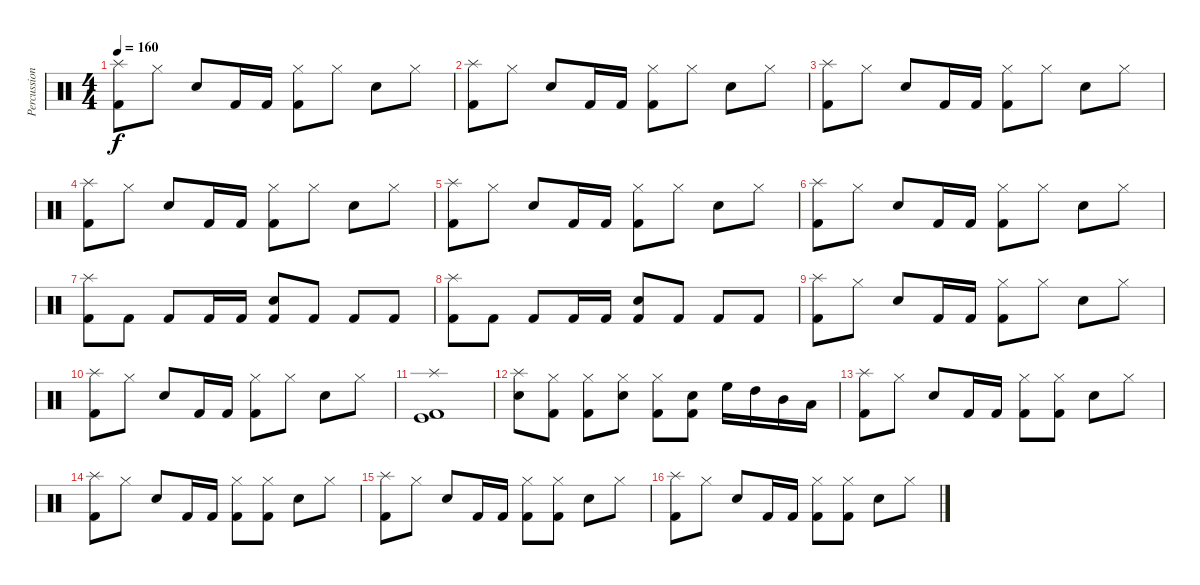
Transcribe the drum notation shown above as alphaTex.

\track ("Percussion" "Percussion") {instrument percussion}
\staff {score}
\articulation defaults
\ts (4 4)
\tempo 160
\clef neutral
\ks c
("Splash (hit)" "Kick (hit) 2").8{dy f} "Hi-Hat (closed)".8 "Snare (hit) 2".8 "Kick (hit) 2".16 "Kick (hit) 2".16 ("Hi-Hat (closed)" "Kick (hit) 2").8 "Hi-Hat (closed)".8 "Snare (hit) 2".8 "Hi-Hat (closed)".8 |
("Splash (hit)" "Kick (hit) 2").8 "Hi-Hat (closed)".8 "Snare (hit) 2".8 "Kick (hit) 2".16 "Kick (hit) 2".16 ("Hi-Hat (closed)" "Kick (hit) 2").8 "Hi-Hat (closed)".8 "Snare (hit) 2".8 "Hi-Hat (closed)".8 |
("Splash (hit)" "Kick (hit) 2").8 "Hi-Hat (closed)".8 "Snare (hit) 2".8 "Kick (hit) 2".16 "Kick (hit) 2".16 ("Hi-Hat (closed)" "Kick (hit) 2").8 "Hi-Hat (closed)".8 "Snare (hit) 2".8 "Hi-Hat (closed)".8 |
("Splash (hit)" "Kick (hit) 2").8 "Hi-Hat (closed)".8 "Snare (hit) 2".8 "Kick (hit) 2".16 "Kick (hit) 2".16 ("Hi-Hat (closed)" "Kick (hit) 2").8 "Hi-Hat (closed)".8 "Snare (hit) 2".8 "Hi-Hat (closed)".8 |
("Splash (hit)" "Kick (hit) 2").8 "Hi-Hat (closed)".8 "Snare (hit) 2".8 "Kick (hit) 2".16 "Kick (hit) 2".16 ("Hi-Hat (closed)" "Kick (hit) 2").8 "Hi-Hat (closed)".8 "Snare (hit) 2".8 "Hi-Hat (closed)".8 |
("Splash (hit)" "Kick (hit) 2").8 "Hi-Hat (closed)".8 "Snare (hit) 2".8 "Kick (hit) 2".16 "Kick (hit) 2".16 ("Hi-Hat (closed)" "Kick (hit) 2").8 "Hi-Hat (closed)".8 "Snare (hit) 2".8 "Hi-Hat (closed)".8 |
("Splash (hit)" "Kick (hit) 2").8 "Kick (hit) 2".8 "Kick (hit) 2".8 "Kick (hit) 2".16 "Kick (hit) 2".16 ("Snare (hit) 2" "Kick (hit) 2").8 "Kick (hit) 2".8 "Kick (hit) 2".8 "Kick (hit) 2".8 |
("Splash (hit)" "Kick (hit) 2").8 "Kick (hit) 2".8 "Kick (hit) 2".8 "Kick (hit) 2".16 "Kick (hit) 2".16 ("Snare (hit) 2" "Kick (hit) 2").8 "Kick (hit) 2".8 "Kick (hit) 2".8 "Kick (hit) 2".8 |
("Splash (hit)" "Kick (hit) 2").8 "Hi-Hat (closed)".8 "Snare (hit) 2".8 "Kick (hit) 2".16 "Kick (hit) 2".16 ("Hi-Hat (closed)" "Kick (hit) 2").8 "Hi-Hat (closed)".8 "Snare (hit) 2".8 "Hi-Hat (closed)".8 |
("Splash (hit)" "Kick (hit) 2").8 "Hi-Hat (closed)".8 "Snare (hit) 2".8 "Kick (hit) 2".16 "Kick (hit) 2".16 ("Hi-Hat (closed)" "Kick (hit) 2").8 "Hi-Hat (closed)".8 "Snare (hit) 2".8 "Hi-Hat (closed)".8 |
("Splash (hit)" "Kick (hit)" "Kick (hit) 2").1 |
("Splash (hit)" "Snare (hit) 2").8 ("Hi-Hat (closed)" "Kick (hit) 2").8 ("Hi-Hat (closed)" "Kick (hit) 2").8 ("Hi-Hat (closed)" "Snare (hit) 2").8 ("Hi-Hat (closed)" "Kick (hit) 2").8 ("Snare (hit) 2" "Kick (hit) 2").8 "High Floor Tom (hit)".16 "High Tom (hit)".16 "Mid Tom (hit)".16 "Low Tom (hit)".16 |
("Splash (hit)" "Kick (hit) 2").8 "Hi-Hat (closed)".8 "Snare (hit) 2".8 "Kick (hit) 2".16 "Kick (hit) 2".16 ("Hi-Hat (closed)" "Kick (hit) 2").8 ("Hi-Hat (closed)" "Kick (hit) 2").8 "Snare (hit) 2".8 "Hi-Hat (closed)".8 |
("Splash (hit)" "Kick (hit) 2").8 "Hi-Hat (closed)".8 "Snare (hit) 2".8 "Kick (hit) 2".16 "Kick (hit) 2".16 ("Hi-Hat (closed)" "Kick (hit) 2").8 ("Hi-Hat (closed)" "Kick (hit) 2").8 "Snare (hit) 2".8 "Hi-Hat (closed)".8 |
("Splash (hit)" "Kick (hit) 2").8 "Hi-Hat (closed)".8 "Snare (hit) 2".8 "Kick (hit) 2".16 "Kick (hit) 2".16 ("Hi-Hat (closed)" "Kick (hit) 2").8 ("Hi-Hat (closed)" "Kick (hit) 2").8 "Snare (hit) 2".8 "Hi-Hat (closed)".8 |
("Splash (hit)" "Kick (hit) 2").8 "Hi-Hat (closed)".8 "Snare (hit) 2".8 "Kick (hit) 2".16 "Kick (hit) 2".16 ("Hi-Hat (closed)" "Kick (hit) 2").8 ("Hi-Hat (closed)" "Kick (hit) 2").8 "Snare (hit) 2".8 "Hi-Hat (closed)".8
